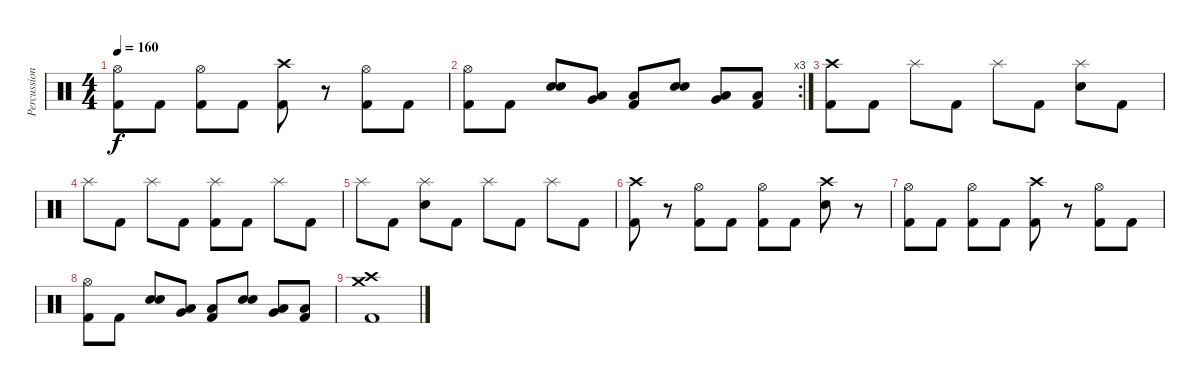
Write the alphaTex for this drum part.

\track ("Percussion" "Percussion") {instrument percussion}
\staff {score}
\articulation defaults
\ts (4 4)
\tempo 160
\clef neutral
\ks c
("Hi-Hat (open)" "Kick (hit) 2").8{dy f} "Kick (hit) 2".8 ("Hi-Hat (open)" "Kick (hit) 2").8 "Kick (hit) 2".8 ("Crash high (hit)" "Kick (hit) 2").8 r.8 ("Hi-Hat (open)" "Kick (hit) 2").8 "Kick (hit) 2".8 |
\rc 3
("Hi-Hat (open)" "Kick (hit) 2").8 "Kick (hit) 2".8 ("Electric Snare (hit)" "Electric Snare (hit)").8{bu 120} ("Low Tom (hit)" "Very Low Tom (hit)").8{bu 120} ("Low Floor Tom (hit)" "Kick (hit) 2").8 ("Electric Snare (hit)" "Electric Snare (hit)").8{bu 120} ("Low Tom (hit)" "Very Low Tom (hit)").8{bu 120} ("Low Floor Tom (hit)" "Kick (hit) 2").8 |
("Crash high (hit)" "Kick (hit) 2").8 "Kick (hit) 2".8 "Splash (hit)".8 "Kick (hit) 2".8 "Splash (hit)".8 "Kick (hit) 2".8 ("Splash (hit)" "Electric Snare (hit)").8 "Kick (hit) 2".8 |
"Splash (hit)".8 "Kick (hit) 2".8 "Splash (hit)".8 "Kick (hit) 2".8 ("Splash (hit)" "Kick (hit) 2").8 "Kick (hit) 2".8 "Splash (hit)".8 "Kick (hit) 2".8 |
"Splash (hit)".8 "Kick (hit) 2".8 ("Splash (hit)" "Electric Snare (hit)").8 "Kick (hit) 2".8 "Splash (hit)".8 "Kick (hit) 2".8 "Splash (hit)".8 "Kick (hit) 2".8 |
("Crash high (hit)" "Kick (hit) 2").8 r.8 ("Hi-Hat (open)" "Kick (hit) 2").8 "Kick (hit) 2".8 ("Hi-Hat (open)" "Kick (hit) 2").8 "Kick (hit) 2".8 ("Crash high (hit)" "Electric Snare (hit)").8 r.8 |
("Hi-Hat (open)" "Kick (hit) 2").8 "Kick (hit) 2".8 ("Hi-Hat (open)" "Kick (hit) 2").8 "Kick (hit) 2".8 ("Crash high (hit)" "Kick (hit) 2").8 r.8 ("Hi-Hat (open)" "Kick (hit) 2").8 "Kick (hit) 2".8 |
("Hi-Hat (open)" "Kick (hit) 2").8 "Kick (hit) 2".8 ("Electric Snare (hit)" "Electric Snare (hit)").8{bu 120} ("Low Tom (hit)" "Very Low Tom (hit)").8{bu 120} ("Low Floor Tom (hit)" "Kick (hit) 2").8 ("Electric Snare (hit)" "Electric Snare (hit)").8{bu 120} ("Low Tom (hit)" "Very Low Tom (hit)").8{bu 120} ("Low Floor Tom (hit)" "Kick (hit) 2").8 |
("Crash medium (hit)" "Crash high (hit)" "Kick (hit) 2").1
